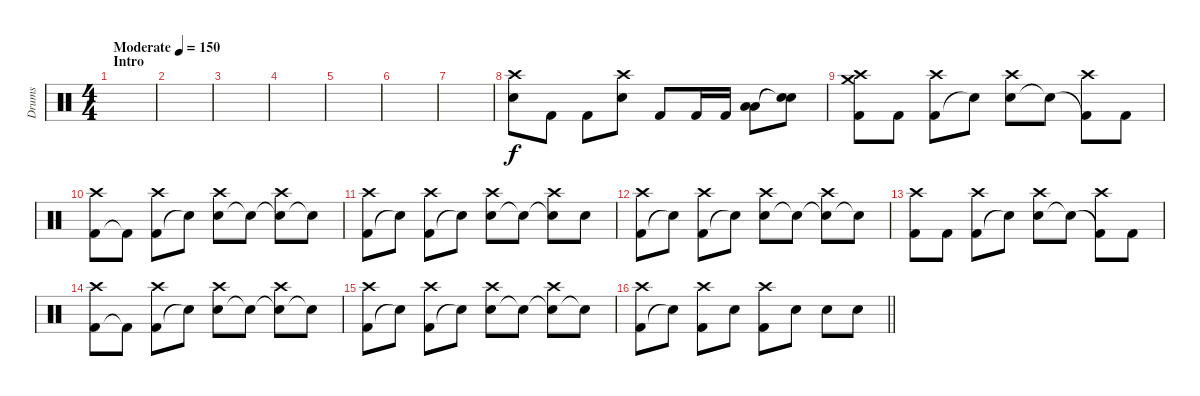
\track ("Drums" "Drums") {instrument percussion}
\staff {score}
\articulation defaults
\ts (4 4)
\section ("" "Intro")
\tempo (150 "Moderate")
\clef neutral
\ks c
|
|
|
|
|
|
|
("Electric Snare (hit)" "Crash high (hit)").8 "Kick (hit) 2".8 "Kick (hit) 2".8 ("Electric Snare (hit)" "Crash high (hit)").8 "Kick (hit) 2".8 "Kick (hit) 2".16 "Kick (hit) 2".16 ("Low Tom (hit)" "Low Floor Tom (hit)").8 ("Snare (hit)"{t} "Snare (hit)"{t}).8 |
("Kick (hit) 2" "Crash medium (hit)" "Crash high (hit)").8 "Kick (hit) 2".8 ("Kick (hit) 2" "Crash high (hit)").8 "Snare (hit)"{t}.8 ("Electric Snare (hit)" "Crash high (hit)").8 "Snare (hit)"{t}.8 ("Kick (hit) 2"{t} "Crash high (hit)").8 "Kick (hit) 2".8 |
("Kick (hit) 2" "Crash high (hit)").8 "Kick (hit) 2"{t}.8 ("Kick (hit) 2" "Crash high (hit)").8 "Electric Snare (hit)"{t}.8 ("Electric Snare (hit)" "Crash high (hit)").8 "Snare (hit)"{t}.8 ("Snare (hit)"{t} "Crash high (hit)").8 "Snare (hit)"{t}.8 |
("Kick (hit) 2" "Crash high (hit)").8 "Snare (hit)"{t}.8 ("Kick (hit) 2" "Crash high (hit)").8 "Snare (hit)"{t}.8 ("Electric Snare (hit)" "Crash high (hit)").8 "Snare (hit)"{t}.8 ("Snare (hit)"{t} "Crash high (hit)").8 "Electric Snare (hit)".8 |
("Kick (hit) 2" "Crash high (hit)").8 "Snare (hit)"{t}.8 ("Kick (hit) 2" "Crash high (hit)").8 "Snare (hit)"{t}.8 ("Electric Snare (hit)" "Crash high (hit)").8 "Snare (hit)"{t}.8 ("Snare (hit)"{t} "Crash high (hit)").8 "Snare (hit)"{t}.8 |
("Kick (hit) 2" "Crash high (hit)").8 "Kick (hit) 2".8 ("Kick (hit) 2" "Crash high (hit)").8 "Snare (hit)"{t}.8 ("Electric Snare (hit)" "Crash high (hit)").8 "Snare (hit)"{t}.8 ("Kick (hit) 2"{t} "Crash high (hit)").8 "Kick (hit) 2".8 |
("Kick (hit) 2" "Crash high (hit)").8 "Kick (hit) 2"{t}.8 ("Kick (hit) 2" "Crash high (hit)").8 "Electric Snare (hit)"{t}.8 ("Electric Snare (hit)" "Crash high (hit)").8 "Snare (hit)"{t}.8 ("Snare (hit)"{t} "Crash high (hit)").8 "Snare (hit)"{t}.8 |
("Kick (hit) 2" "Crash high (hit)").8 "Snare (hit)"{t}.8 ("Kick (hit) 2" "Crash high (hit)").8 "Snare (hit)"{t}.8 ("Electric Snare (hit)" "Crash high (hit)").8 "Snare (hit)"{t}.8 ("Snare (hit)"{t} "Crash high (hit)").8 "Electric Snare (hit)"{t}.8 |
\barLineRight lightlight
("Kick (hit) 2" "Crash high (hit)").8 "Snare (hit)"{t}.8 ("Kick (hit) 2" "Crash high (hit)").8 "Electric Snare (hit)".8 ("Kick (hit) 2" "Crash high (hit)").8 "Electric Snare (hit)".8 "Electric Snare (hit)".8 "Electric Snare (hit)".8
